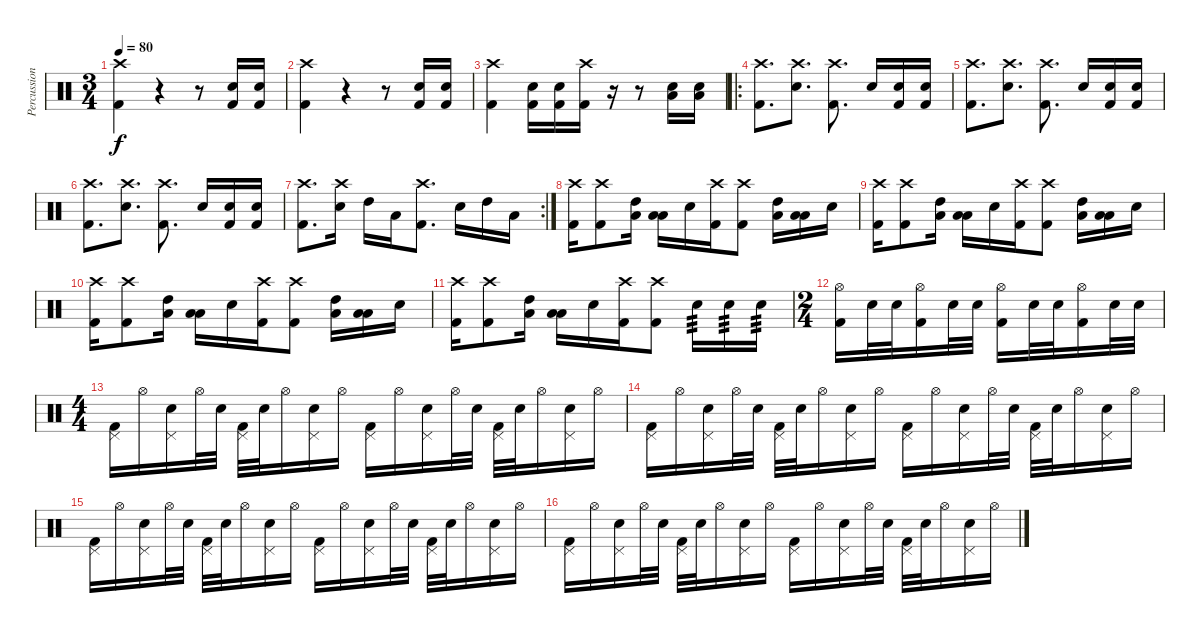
\track ("Percussion" "Percussion") {instrument percussion}
\staff {score}
\articulation defaults
\ts (3 4)
\tempo 80
\clef neutral
\ks c
("Crash high (hit)" "Kick (hit) 2").4{dy f} r.4 r.8 ("Electric Snare (hit)" "Kick (hit) 2").16 ("Electric Snare (hit)" "Kick (hit) 2").16 |
("Crash high (hit)" "Kick (hit) 2").4 r.4 r.8 ("Electric Snare (hit)" "Kick (hit) 2").16 ("Electric Snare (hit)" "Kick (hit) 2").16 |
("Crash high (hit)" "Kick (hit) 2").4 ("Electric Snare (hit)" "Kick (hit) 2").16 ("Electric Snare (hit)" "Kick (hit) 2").16 ("Crash high (hit)" "Kick (hit) 2").16 r.16 r.8 ("Low Floor Tom (hit)" "Electric Snare (hit)").16 ("Low Floor Tom (hit)" "Electric Snare (hit)").16 |
\ro
("Crash high (hit)" "Kick (hit) 2").8{d} ("Crash high (hit)" "Electric Snare (hit)").8{d} ("Crash high (hit)" "Kick (hit) 2").8{d} "Electric Snare (hit)".16 ("Electric Snare (hit)" "Kick (hit) 2").16 ("Electric Snare (hit)" "Kick (hit) 2").16 |
("Crash high (hit)" "Kick (hit) 2").8{d} ("Crash high (hit)" "Electric Snare (hit)").8{d} ("Crash high (hit)" "Kick (hit) 2").8{d} "Electric Snare (hit)".16 ("Electric Snare (hit)" "Kick (hit) 2").16 ("Electric Snare (hit)" "Kick (hit) 2").16 |
("Crash high (hit)" "Kick (hit) 2").8{d} ("Crash high (hit)" "Electric Snare (hit)").8{d} ("Crash high (hit)" "Kick (hit) 2").8{d} "Electric Snare (hit)".16 ("Electric Snare (hit)" "Kick (hit) 2").16 ("Electric Snare (hit)" "Kick (hit) 2").16 |
\rc 2
("Crash high (hit)" "Kick (hit) 2").8{d} ("Crash high (hit)" "Electric Snare (hit)").16 "High Tom (hit)".16 "Low Tom (hit)".16 ("Crash high (hit)" "Kick (hit) 2").8{d} "Electric Snare (hit)".16 "High Tom (hit)".16 "Low Floor Tom (hit)".16 |
("Crash high (hit)" "Kick (hit) 2").16 ("Crash high (hit)" "Kick (hit) 2").8 ("High Tom (hit)" "Low Tom (hit)").16 ("Low Tom (hit)" "Low Floor Tom (hit)").16 "Electric Snare (hit)".16 ("Crash high (hit)" "Kick (hit) 2").16 ("Crash high (hit)" "Kick (hit) 2").8 ("High Tom (hit)" "Low Tom (hit)").16 ("Low Tom (hit)" "Low Floor Tom (hit)").16 "Electric Snare (hit)".16 |
("Crash high (hit)" "Kick (hit) 2").16 ("Crash high (hit)" "Kick (hit) 2").8 ("High Tom (hit)" "Low Tom (hit)").16 ("Low Tom (hit)" "Low Floor Tom (hit)").16 "Electric Snare (hit)".16 ("Crash high (hit)" "Kick (hit) 2").16 ("Crash high (hit)" "Kick (hit) 2").8 ("High Tom (hit)" "Low Tom (hit)").16 ("Low Tom (hit)" "Low Floor Tom (hit)").16 "Electric Snare (hit)".16 |
("Crash high (hit)" "Kick (hit) 2").16 ("Crash high (hit)" "Kick (hit) 2").8 ("High Tom (hit)" "Low Tom (hit)").16 ("Low Tom (hit)" "Low Floor Tom (hit)").16 "Electric Snare (hit)".16 ("Crash high (hit)" "Kick (hit) 2").16 ("Crash high (hit)" "Kick (hit) 2").8 ("High Tom (hit)" "Low Tom (hit)").16 ("Low Tom (hit)" "Low Floor Tom (hit)").16 "Electric Snare (hit)".16 |
("Crash high (hit)" "Kick (hit) 2").16 ("Crash high (hit)" "Kick (hit) 2").8 ("High Tom (hit)" "Low Tom (hit)").16 ("Low Tom (hit)" "Low Floor Tom (hit)").16 "Electric Snare (hit)".16 ("Crash high (hit)" "Kick (hit) 2").16 ("Crash high (hit)" "Kick (hit) 2").8 "Electric Snare (hit)".16{tp 3} "Electric Snare (hit)".16{tp 3} "Electric Snare (hit)".16{tp 3} |
\ts (2 4)
("Hi-Hat (open)" "Kick (hit) 2").16 "Electric Snare (hit)".32 "Electric Snare (hit)".32 ("Hi-Hat (open)" "Kick (hit) 2").16 "Electric Snare (hit)".32 "Electric Snare (hit)".32 ("Hi-Hat (open)" "Kick (hit) 2").16 "Electric Snare (hit)".32 "Electric Snare (hit)".32 ("Hi-Hat (open)" "Kick (hit) 2").16 "Electric Snare (hit)".32 "Electric Snare (hit)".32 |
\ts (4 4)
("Pedal Hi-Hat (hit)" "Kick (hit) 2").16 "Hi-Hat (open)".16 ("Pedal Hi-Hat (hit)" "Electric Snare (hit)").16 "Hi-Hat (open)".32 "Electric Snare (hit)".32 ("Pedal Hi-Hat (hit)" "Kick (hit) 2").32 "Electric Snare (hit)".32 "Hi-Hat (open)".16 ("Pedal Hi-Hat (hit)" "Electric Snare (hit)").16 "Hi-Hat (open)".16 ("Pedal Hi-Hat (hit)" "Kick (hit) 2").16 "Hi-Hat (open)".16 ("Pedal Hi-Hat (hit)" "Electric Snare (hit)").16 "Hi-Hat (open)".32 "Electric Snare (hit)".32 ("Pedal Hi-Hat (hit)" "Kick (hit) 2").32 "Electric Snare (hit)".32 "Hi-Hat (open)".16 ("Pedal Hi-Hat (hit)" "Electric Snare (hit)").16 "Hi-Hat (open)".16 |
("Pedal Hi-Hat (hit)" "Kick (hit) 2").16 "Hi-Hat (open)".16 ("Pedal Hi-Hat (hit)" "Electric Snare (hit)").16 "Hi-Hat (open)".32 "Electric Snare (hit)".32 ("Pedal Hi-Hat (hit)" "Kick (hit) 2").32 "Electric Snare (hit)".32 "Hi-Hat (open)".16 ("Pedal Hi-Hat (hit)" "Electric Snare (hit)").16 "Hi-Hat (open)".16 ("Pedal Hi-Hat (hit)" "Kick (hit) 2").16 "Hi-Hat (open)".16 ("Pedal Hi-Hat (hit)" "Electric Snare (hit)").16 "Hi-Hat (open)".32 "Electric Snare (hit)".32 ("Pedal Hi-Hat (hit)" "Kick (hit) 2").32 "Electric Snare (hit)".32 "Hi-Hat (open)".16 ("Pedal Hi-Hat (hit)" "Electric Snare (hit)").16 "Hi-Hat (open)".16 |
("Pedal Hi-Hat (hit)" "Kick (hit) 2").16 "Hi-Hat (open)".16 ("Pedal Hi-Hat (hit)" "Electric Snare (hit)").16 "Hi-Hat (open)".32 "Electric Snare (hit)".32 ("Pedal Hi-Hat (hit)" "Kick (hit) 2").32 "Electric Snare (hit)".32 "Hi-Hat (open)".16 ("Pedal Hi-Hat (hit)" "Electric Snare (hit)").16 "Hi-Hat (open)".16 ("Pedal Hi-Hat (hit)" "Kick (hit) 2").16 "Hi-Hat (open)".16 ("Pedal Hi-Hat (hit)" "Electric Snare (hit)").16 "Hi-Hat (open)".32 "Electric Snare (hit)".32 ("Pedal Hi-Hat (hit)" "Kick (hit) 2").32 "Electric Snare (hit)".32 "Hi-Hat (open)".16 ("Pedal Hi-Hat (hit)" "Electric Snare (hit)").16 "Hi-Hat (open)".16 |
("Pedal Hi-Hat (hit)" "Kick (hit) 2").16 "Hi-Hat (open)".16 ("Pedal Hi-Hat (hit)" "Electric Snare (hit)").16 "Hi-Hat (open)".32 "Electric Snare (hit)".32 ("Pedal Hi-Hat (hit)" "Kick (hit) 2").32 "Electric Snare (hit)".32 "Hi-Hat (open)".16 ("Pedal Hi-Hat (hit)" "Electric Snare (hit)").16 "Hi-Hat (open)".16 ("Pedal Hi-Hat (hit)" "Kick (hit) 2").16 "Hi-Hat (open)".16 ("Pedal Hi-Hat (hit)" "Electric Snare (hit)").16 "Hi-Hat (open)".32 "Electric Snare (hit)".32 ("Pedal Hi-Hat (hit)" "Kick (hit) 2").32 "Electric Snare (hit)".32 "Hi-Hat (open)".16 ("Pedal Hi-Hat (hit)" "Electric Snare (hit)").16 "Hi-Hat (open)".16
